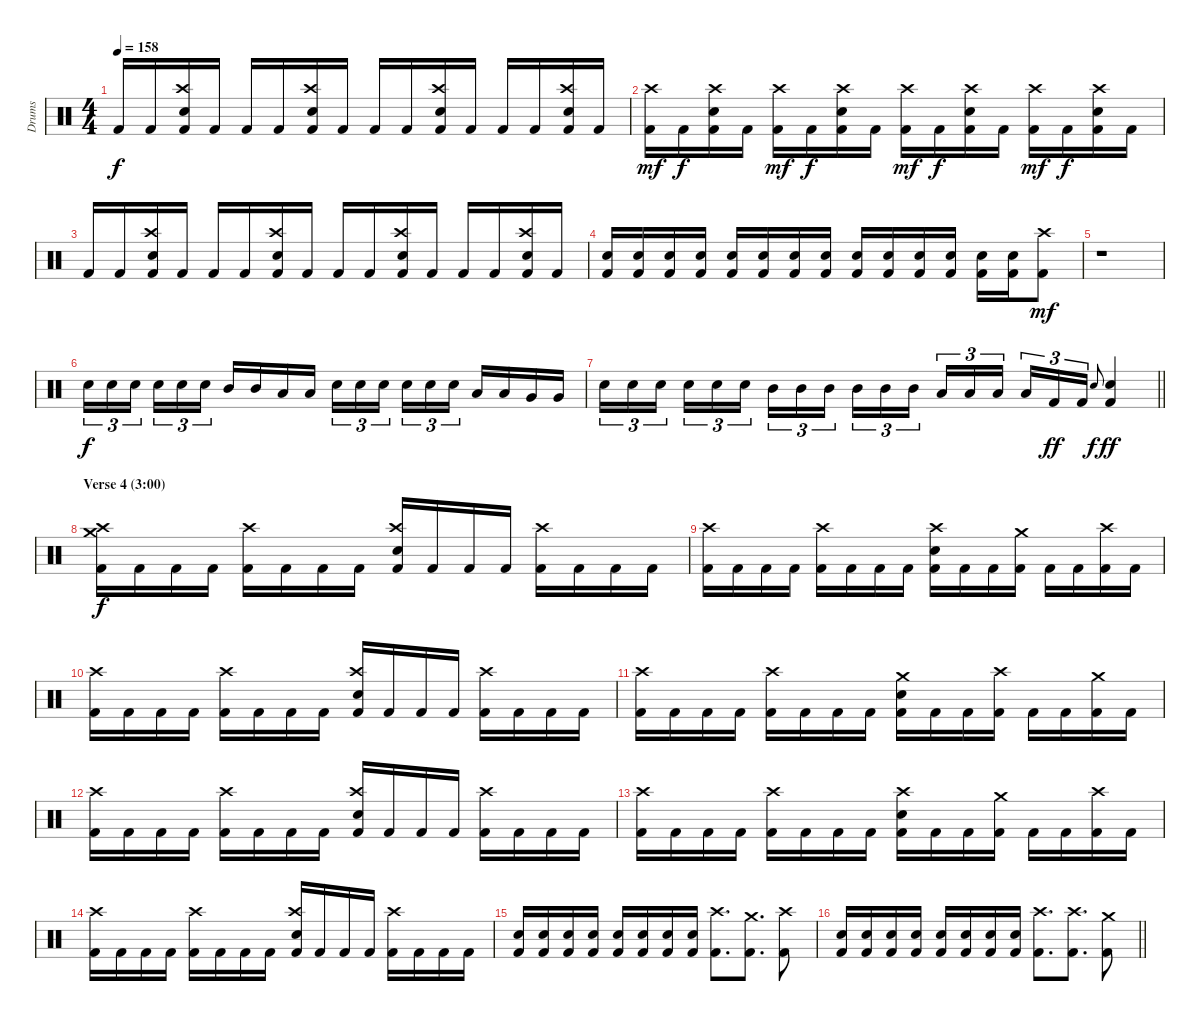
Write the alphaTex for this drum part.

\track ("Drums" "Drums") {instrument percussion}
\staff {score}
\articulation defaults
\ts (4 4)
\tempo 158
\clef neutral
\ks c "Kick (hit) 2".16{dy f} "Kick (hit) 2".16
("Crash high (hit)" "Electric Snare (hit)" "Kick (hit) 2").16 "Kick (hit) 2".16 "Kick (hit) 2".16 "Kick (hit) 2".16 ("Crash high (hit)" "Electric Snare (hit)" "Kick (hit) 2").16 "Kick (hit) 2".16 "Kick (hit) 2".16 "Kick (hit) 2".16 ("Crash high (hit)" "Electric Snare (hit)" "Kick (hit) 2").16 "Kick (hit) 2".16 "Kick (hit) 2".16 "Kick (hit) 2".16 ("Crash high (hit)" "Electric Snare (hit)" "Kick (hit) 2").16 "Kick (hit) 2".16 |
("Crash high (hit)" "Kick (hit) 2").16{dy mf} "Kick (hit) 2".16{dy f} ("Crash high (hit)" "Electric Snare (hit)" "Kick (hit) 2").16 "Kick (hit) 2".16 ("Crash high (hit)" "Kick (hit) 2").16{dy mf} "Kick (hit) 2".16{dy f} ("Crash high (hit)" "Electric Snare (hit)" "Kick (hit) 2").16 "Kick (hit) 2".16 ("Crash high (hit)" "Kick (hit) 2").16{dy mf} "Kick (hit) 2".16{dy f} ("Crash high (hit)" "Electric Snare (hit)" "Kick (hit) 2").16 "Kick (hit) 2".16 ("Crash high (hit)" "Kick (hit) 2").16{dy mf} "Kick (hit) 2".16{dy f} ("Crash high (hit)" "Electric Snare (hit)" "Kick (hit) 2").16 "Kick (hit) 2".16 |
"Kick (hit) 2".16 "Kick (hit) 2".16 ("Crash high (hit)" "Electric Snare (hit)" "Kick (hit) 2").16 "Kick (hit) 2".16 "Kick (hit) 2".16 "Kick (hit) 2".16 ("Crash high (hit)" "Electric Snare (hit)" "Kick (hit) 2").16 "Kick (hit) 2".16 "Kick (hit) 2".16 "Kick (hit) 2".16 ("Crash high (hit)" "Electric Snare (hit)" "Kick (hit) 2").16 "Kick (hit) 2".16 "Kick (hit) 2".16 "Kick (hit) 2".16 ("Crash high (hit)" "Electric Snare (hit)" "Kick (hit) 2").16 "Kick (hit) 2".16 |
("Electric Snare (hit)" "Kick (hit) 2").16 ("Electric Snare (hit)" "Kick (hit) 2").16 ("Electric Snare (hit)" "Kick (hit) 2").16 ("Electric Snare (hit)" "Kick (hit) 2").16 ("Electric Snare (hit)" "Kick (hit) 2").16 ("Electric Snare (hit)" "Kick (hit) 2").16 ("Electric Snare (hit)" "Kick (hit) 2").16 ("Electric Snare (hit)" "Kick (hit) 2").16 ("Electric Snare (hit)" "Kick (hit) 2").16 ("Electric Snare (hit)" "Kick (hit) 2").16 ("Electric Snare (hit)" "Kick (hit) 2").16 ("Electric Snare (hit)" "Kick (hit) 2").16 ("Electric Snare (hit)" "Kick (hit) 2").16 ("Electric Snare (hit)" "Kick (hit) 2").16 ("Crash high (hit)" "Kick (hit) 2").8{dy mf} |
r.1 |
"Electric Snare (hit)".16{tu (3 2) dy f} "Electric Snare (hit)".16{tu (3 2)} "Electric Snare (hit)".16{tu (3 2) beam splitsecondary} "Electric Snare (hit)".16{tu (3 2)} "Electric Snare (hit)".16{tu (3 2)} "Electric Snare (hit)".16{tu (3 2)} "Mid Tom (hit)".16 "Mid Tom (hit)".16 "Low Tom (hit)".16 "Low Tom (hit)".16 "Electric Snare (hit)".16{tu (3 2)} "Electric Snare (hit)".16{tu (3 2)} "Electric Snare (hit)".16{tu (3 2) beam splitsecondary} "Electric Snare (hit)".16{tu (3 2)} "Electric Snare (hit)".16{tu (3 2)} "Electric Snare (hit)".16{tu (3 2)} "Low Tom (hit)".16 "Low Tom (hit)".16 "Very Low Tom (hit)".16 "Very Low Tom (hit)".16 |
\barLineRight lightlight "Electric Snare (hit)".16{tu (3 2)} "Electric Snare (hit)".16{tu (3 2)} "Electric Snare (hit)".16{tu (3 2) beam splitsecondary} "Electric Snare (hit)".16{tu (3 2)} "Electric Snare (hit)".16{tu (3 2)} "Electric Snare (hit)".16{tu (3 2)} "Mid Tom (hit)".16{tu (3 2)} "Mid Tom (hit)".16{tu (3 2)} "Mid Tom (hit)".16{tu (3 2) beam splitsecondary} "Mid Tom (hit)".16{tu (3 2)} "Mid Tom (hit)".16{tu (3 2)} "Mid Tom (hit)".16{tu (3 2)} "Low Tom (hit)".16{tu (3 2)} "Low Tom (hit)".16{tu (3 2)} "Low Tom (hit)".16{tu (3 2) beam splitsecondary} "Low Tom (hit)".16{tu (3 2)} "Kick (hit) 2".16{tu (3 2) dy ff} "Kick (hit) 2".16{tu (3 2)} "Electric Snare (hit)".8{gr onbeat dy f}
("Electric Snare (hit)" "Kick (hit) 2").4{dy ff} |
\section ("" "Verse 4 (3:00)")
("Crash high (hit)" "Crash medium (hit)" "Kick (hit) 2").16{dy f} "Kick (hit) 2".16 "Kick (hit) 2".16 "Kick (hit) 2".16 ("Crash high (hit)" "Kick (hit) 2").16 "Kick (hit) 2".16 "Kick (hit) 2".16 "Kick (hit) 2".16 ("Crash high (hit)" "Electric Snare (hit)" "Kick (hit) 2").16 "Kick (hit) 2".16 "Kick (hit) 2".16 "Kick (hit) 2".16 ("Crash high (hit)" "Kick (hit) 2").16 "Kick (hit) 2".16 "Kick (hit) 2".16 "Kick (hit) 2".16 |
("Crash high (hit)" "Kick (hit) 2").16 "Kick (hit) 2".16 "Kick (hit) 2".16 "Kick (hit) 2".16 ("Crash high (hit)" "Kick (hit) 2").16 "Kick (hit) 2".16 "Kick (hit) 2".16 "Kick (hit) 2".16 ("Crash high (hit)" "Electric Snare (hit)" "Kick (hit) 2").16 "Kick (hit) 2".16 "Kick (hit) 2".16 ("Crash medium (hit)" "Kick (hit) 2").16 "Kick (hit) 2".16 "Kick (hit) 2".16 ("Crash high (hit)" "Kick (hit) 2").16 "Kick (hit) 2".16 |
("Crash high (hit)" "Kick (hit) 2").16 "Kick (hit) 2".16 "Kick (hit) 2".16 "Kick (hit) 2".16 ("Crash high (hit)" "Kick (hit) 2").16 "Kick (hit) 2".16 "Kick (hit) 2".16 "Kick (hit) 2".16 ("Crash high (hit)" "Electric Snare (hit)" "Kick (hit) 2").16 "Kick (hit) 2".16 "Kick (hit) 2".16 "Kick (hit) 2".16 ("Crash high (hit)" "Kick (hit) 2").16 "Kick (hit) 2".16 "Kick (hit) 2".16 "Kick (hit) 2".16 |
("Crash high (hit)" "Kick (hit) 2").16 "Kick (hit) 2".16 "Kick (hit) 2".16 "Kick (hit) 2".16 ("Crash high (hit)" "Kick (hit) 2").16 "Kick (hit) 2".16 "Kick (hit) 2".16 "Kick (hit) 2".16 ("Crash medium (hit)" "Electric Snare (hit)" "Kick (hit) 2").16 "Kick (hit) 2".16 "Kick (hit) 2".16 ("Crash high (hit)" "Kick (hit) 2").16 "Kick (hit) 2".16 "Kick (hit) 2".16 ("Crash medium (hit)" "Kick (hit) 2").16 "Kick (hit) 2".16 |
("Crash high (hit)" "Kick (hit) 2").16 "Kick (hit) 2".16 "Kick (hit) 2".16 "Kick (hit) 2".16 ("Crash high (hit)" "Kick (hit) 2").16 "Kick (hit) 2".16 "Kick (hit) 2".16 "Kick (hit) 2".16 ("Crash high (hit)" "Electric Snare (hit)" "Kick (hit) 2").16 "Kick (hit) 2".16 "Kick (hit) 2".16 "Kick (hit) 2".16 ("Crash high (hit)" "Kick (hit) 2").16 "Kick (hit) 2".16 "Kick (hit) 2".16 "Kick (hit) 2".16 |
("Crash high (hit)" "Kick (hit) 2").16 "Kick (hit) 2".16 "Kick (hit) 2".16 "Kick (hit) 2".16 ("Crash high (hit)" "Kick (hit) 2").16 "Kick (hit) 2".16 "Kick (hit) 2".16 "Kick (hit) 2".16 ("Crash high (hit)" "Electric Snare (hit)" "Kick (hit) 2").16 "Kick (hit) 2".16 "Kick (hit) 2".16 ("Crash medium (hit)" "Kick (hit) 2").16 "Kick (hit) 2".16 "Kick (hit) 2".16 ("Crash high (hit)" "Kick (hit) 2").16 "Kick (hit) 2".16 |
("Crash high (hit)" "Kick (hit) 2").16 "Kick (hit) 2".16 "Kick (hit) 2".16 "Kick (hit) 2".16 ("Crash high (hit)" "Kick (hit) 2").16 "Kick (hit) 2".16 "Kick (hit) 2".16 "Kick (hit) 2".16 ("Crash high (hit)" "Electric Snare (hit)" "Kick (hit) 2").16 "Kick (hit) 2".16 "Kick (hit) 2".16 "Kick (hit) 2".16 ("Crash high (hit)" "Kick (hit) 2").16 "Kick (hit) 2".16 "Kick (hit) 2".16 "Kick (hit) 2".16 |
("Electric Snare (hit)" "Kick (hit) 2").16 ("Electric Snare (hit)" "Kick (hit) 2").16 ("Electric Snare (hit)" "Kick (hit) 2").16 ("Electric Snare (hit)" "Kick (hit) 2").16 ("Electric Snare (hit)" "Kick (hit) 2").16 ("Electric Snare (hit)" "Kick (hit) 2").16 ("Electric Snare (hit)" "Kick (hit) 2").16 ("Electric Snare (hit)" "Kick (hit) 2").16 ("Crash high (hit)" "Kick (hit) 2").8{d} ("Crash medium (hit)" "Kick (hit) 2").8{d} ("Crash high (hit)" "Kick (hit) 2").8 |
\barLineRight lightlight
("Electric Snare (hit)" "Kick (hit) 2").16 ("Electric Snare (hit)" "Kick (hit) 2").16 ("Electric Snare (hit)" "Kick (hit) 2").16 ("Electric Snare (hit)" "Kick (hit) 2").16 ("Electric Snare (hit)" "Kick (hit) 2").16 ("Electric Snare (hit)" "Kick (hit) 2").16 ("Electric Snare (hit)" "Kick (hit) 2").16 ("Electric Snare (hit)" "Kick (hit) 2").16 ("Crash high (hit)" "Kick (hit) 2").8{d} ("Crash high (hit)" "Kick (hit) 2").8{d} ("Crash medium (hit)" "Kick (hit) 2").8
